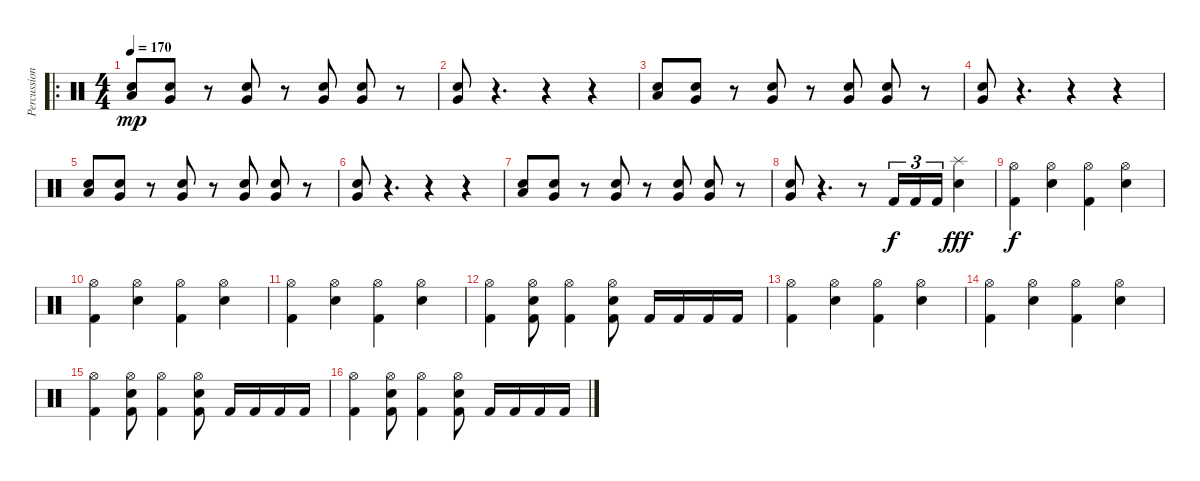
\track ("Percussion" "Percussion") {instrument percussion}
\staff {score}
\articulation defaults
\ro
\ts (4 4)
\tempo 170
\clef neutral
\ks c
("Low Tom (hit)" "Snare (hit) 2").8{dy mp} ("Very Low Tom (hit)" "Snare (hit) 2").8 r.8 ("Very Low Tom (hit)" "Snare (hit) 2").8 r.8 ("Very Low Tom (hit)" "Snare (hit) 2").8 ("Very Low Tom (hit)" "Snare (hit) 2").8 r.8 |
("Very Low Tom (hit)" "Snare (hit) 2").8 r.4{d} r.4 r.4 |
("Low Tom (hit)" "Snare (hit) 2").8 ("Very Low Tom (hit)" "Snare (hit) 2").8 r.8 ("Very Low Tom (hit)" "Snare (hit) 2").8 r.8 ("Very Low Tom (hit)" "Snare (hit) 2").8 ("Very Low Tom (hit)" "Snare (hit) 2").8 r.8 |
("Very Low Tom (hit)" "Snare (hit) 2").8 r.4{d} r.4 r.4 |
("Low Tom (hit)" "Snare (hit) 2").8 ("Very Low Tom (hit)" "Snare (hit) 2").8 r.8 ("Very Low Tom (hit)" "Snare (hit) 2").8 r.8 ("Very Low Tom (hit)" "Snare (hit) 2").8 ("Very Low Tom (hit)" "Snare (hit) 2").8 r.8 |
("Very Low Tom (hit)" "Snare (hit) 2").8 r.4{d} r.4 r.4 |
("Low Tom (hit)" "Snare (hit) 2").8 ("Very Low Tom (hit)" "Snare (hit) 2").8 r.8 ("Very Low Tom (hit)" "Snare (hit) 2").8 r.8 ("Very Low Tom (hit)" "Snare (hit) 2").8 ("Very Low Tom (hit)" "Snare (hit) 2").8 r.8 |
("Very Low Tom (hit)" "Snare (hit) 2").8 r.4{d} r.8 "Kick (hit) 2".16{tu (3 2) dy f} "Kick (hit) 2".16{tu (3 2)} "Kick (hit) 2".16{tu (3 2)} ("Snare (hit) 2" "Splash (hit)").4{dy fff} |
("Hi-Hat (open)" "Kick (hit) 2").4{dy f} ("Hi-Hat (open)" "Snare (hit) 2").4 ("Hi-Hat (open)" "Kick (hit) 2").4 ("Hi-Hat (open)" "Snare (hit) 2").4 |
("Hi-Hat (open)" "Kick (hit) 2").4 ("Hi-Hat (open)" "Snare (hit) 2").4 ("Hi-Hat (open)" "Kick (hit) 2").4 ("Hi-Hat (open)" "Snare (hit) 2").4 |
("Hi-Hat (open)" "Kick (hit) 2").4 ("Hi-Hat (open)" "Snare (hit) 2").4 ("Hi-Hat (open)" "Kick (hit) 2").4 ("Hi-Hat (open)" "Snare (hit) 2").4 |
("Kick (hit) 2" "Hi-Hat (open)").4 ("Hi-Hat (open)" "Snare (hit) 2" "Kick (hit) 2").8 ("Kick (hit) 2" "Hi-Hat (open)").4 ("Hi-Hat (open)" "Snare (hit) 2" "Kick (hit) 2").8 "Kick (hit) 2".16 "Kick (hit) 2".16 "Kick (hit) 2".16 "Kick (hit) 2".16 |
("Hi-Hat (open)" "Kick (hit) 2").4 ("Hi-Hat (open)" "Snare (hit) 2").4 ("Hi-Hat (open)" "Kick (hit) 2").4 ("Hi-Hat (open)" "Snare (hit) 2").4 |
("Hi-Hat (open)" "Kick (hit) 2").4 ("Hi-Hat (open)" "Snare (hit) 2").4 ("Hi-Hat (open)" "Kick (hit) 2").4 ("Hi-Hat (open)" "Snare (hit) 2").4 |
("Kick (hit) 2" "Hi-Hat (open)").4 ("Hi-Hat (open)" "Snare (hit) 2" "Kick (hit) 2").8 ("Kick (hit) 2" "Hi-Hat (open)").4 ("Hi-Hat (open)" "Snare (hit) 2" "Kick (hit) 2").8 "Kick (hit) 2".16 "Kick (hit) 2".16 "Kick (hit) 2".16 "Kick (hit) 2".16 |
("Kick (hit) 2" "Hi-Hat (open)").4 ("Hi-Hat (open)" "Snare (hit) 2" "Kick (hit) 2").8 ("Kick (hit) 2" "Hi-Hat (open)").4 ("Hi-Hat (open)" "Snare (hit) 2" "Kick (hit) 2").8 "Kick (hit) 2".16 "Kick (hit) 2".16 "Kick (hit) 2".16 "Kick (hit) 2".16
